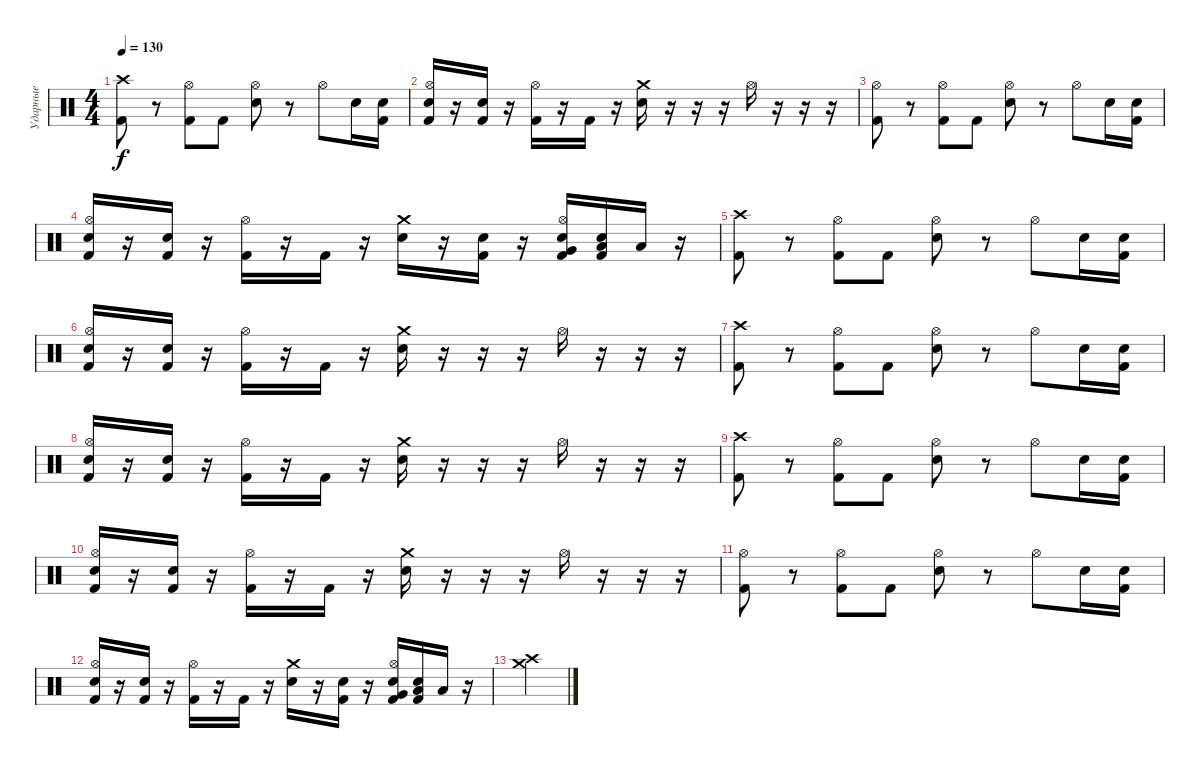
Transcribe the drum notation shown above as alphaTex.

\track ("Ударные" "Ударные") {instrument percussion}
\staff {score}
\articulation defaults
\ts (4 4)
\tempo 130
\clef neutral
\ks c
("Kick (hit) 2" "Crash high (hit)").8{dy f} r.8 ("Kick (hit) 2" "Hi-Hat (open)").8 "Kick (hit) 2".8 ("Electric Snare (hit)" "Hi-Hat (open)").8 r.8 "Hi-Hat (open)".8 "Electric Snare (hit)".16 ("Kick (hit) 2" "Electric Snare (hit)").16 |
("Kick (hit) 2" "Electric Snare (hit)" "Hi-Hat (open)").16 r.16 ("Kick (hit) 2" "Electric Snare (hit)").16 r.16 ("Kick (hit) 2" "Hi-Hat (open)").16 r.16 "Kick (hit) 2".16 r.16 ("Electric Snare (hit)" "Crash medium (hit)").16 r.16 r.16 r.16 "Hi-Hat (open)".16 r.16 r.16 r.16 |
("Kick (hit) 2" "Hi-Hat (open)").8 r.8 ("Kick (hit) 2" "Hi-Hat (open)").8 "Kick (hit) 2".8 ("Electric Snare (hit)" "Hi-Hat (open)").8 r.8 "Hi-Hat (open)".8 "Electric Snare (hit)".16 ("Kick (hit) 2" "Electric Snare (hit)").16 |
("Kick (hit) 2" "Electric Snare (hit)" "Hi-Hat (open)").16 r.16 ("Kick (hit) 2" "Electric Snare (hit)").16 r.16 ("Kick (hit) 2" "Hi-Hat (open)").16 r.16 "Kick (hit) 2".16 r.16 ("Electric Snare (hit)" "Crash medium (hit)").16 r.16 ("Electric Snare (hit)" "Kick (hit) 2").16 r.16 ("Kick (hit) 2" "Very Low Tom (hit)" "Electric Snare (hit)" "Hi-Hat (open)").16 ("Kick (hit) 2" "Low Floor Tom (hit)" "Electric Snare (hit)").16 "Low Tom (hit)".16 r.16 |
("Kick (hit) 2" "Crash high (hit)").8 r.8 ("Kick (hit) 2" "Hi-Hat (open)").8 "Kick (hit) 2".8 ("Electric Snare (hit)" "Hi-Hat (open)").8 r.8 "Hi-Hat (open)".8 "Electric Snare (hit)".16 ("Kick (hit) 2" "Electric Snare (hit)").16 |
("Kick (hit) 2" "Electric Snare (hit)" "Hi-Hat (open)").16 r.16 ("Kick (hit) 2" "Electric Snare (hit)").16 r.16 ("Kick (hit) 2" "Hi-Hat (open)").16 r.16 "Kick (hit) 2".16 r.16 ("Electric Snare (hit)" "Crash medium (hit)").16 r.16 r.16 r.16 "Hi-Hat (open)".16 r.16 r.16 r.16 |
("Kick (hit) 2" "Crash high (hit)").8 r.8 ("Kick (hit) 2" "Hi-Hat (open)").8 "Kick (hit) 2".8 ("Electric Snare (hit)" "Hi-Hat (open)").8 r.8 "Hi-Hat (open)".8 "Electric Snare (hit)".16 ("Kick (hit) 2" "Electric Snare (hit)").16 |
("Kick (hit) 2" "Electric Snare (hit)" "Hi-Hat (open)").16 r.16 ("Kick (hit) 2" "Electric Snare (hit)").16 r.16 ("Kick (hit) 2" "Hi-Hat (open)").16 r.16 "Kick (hit) 2".16 r.16 ("Electric Snare (hit)" "Crash medium (hit)").16 r.16 r.16 r.16 "Hi-Hat (open)".16 r.16 r.16 r.16 |
("Kick (hit) 2" "Crash high (hit)").8 r.8 ("Kick (hit) 2" "Hi-Hat (open)").8 "Kick (hit) 2".8 ("Electric Snare (hit)" "Hi-Hat (open)").8 r.8 "Hi-Hat (open)".8 "Electric Snare (hit)".16 ("Kick (hit) 2" "Electric Snare (hit)").16 |
("Kick (hit) 2" "Electric Snare (hit)" "Hi-Hat (open)").16 r.16 ("Kick (hit) 2" "Electric Snare (hit)").16 r.16 ("Kick (hit) 2" "Hi-Hat (open)").16 r.16 "Kick (hit) 2".16 r.16 ("Electric Snare (hit)" "Crash medium (hit)").16 r.16 r.16 r.16 "Hi-Hat (open)".16 r.16 r.16 r.16 |
("Kick (hit) 2" "Hi-Hat (open)").8 r.8 ("Kick (hit) 2" "Hi-Hat (open)").8 "Kick (hit) 2".8 ("Electric Snare (hit)" "Hi-Hat (open)").8 r.8 "Hi-Hat (open)".8 "Electric Snare (hit)".16 ("Kick (hit) 2" "Electric Snare (hit)").16 |
("Kick (hit) 2" "Electric Snare (hit)" "Hi-Hat (open)").16 r.16 ("Kick (hit) 2" "Electric Snare (hit)").16 r.16 ("Kick (hit) 2" "Hi-Hat (open)").16 r.16 "Kick (hit) 2".16 r.16 ("Electric Snare (hit)" "Crash medium (hit)").16 r.16 ("Electric Snare (hit)" "Kick (hit) 2").16 r.16 ("Kick (hit) 2" "Very Low Tom (hit)" "Electric Snare (hit)" "Hi-Hat (open)").16 ("Kick (hit) 2" "Low Floor Tom (hit)" "Electric Snare (hit)").16 "Low Tom (hit)".16 r.16 |
("Crash high (hit)" "Crash medium (hit)").4
